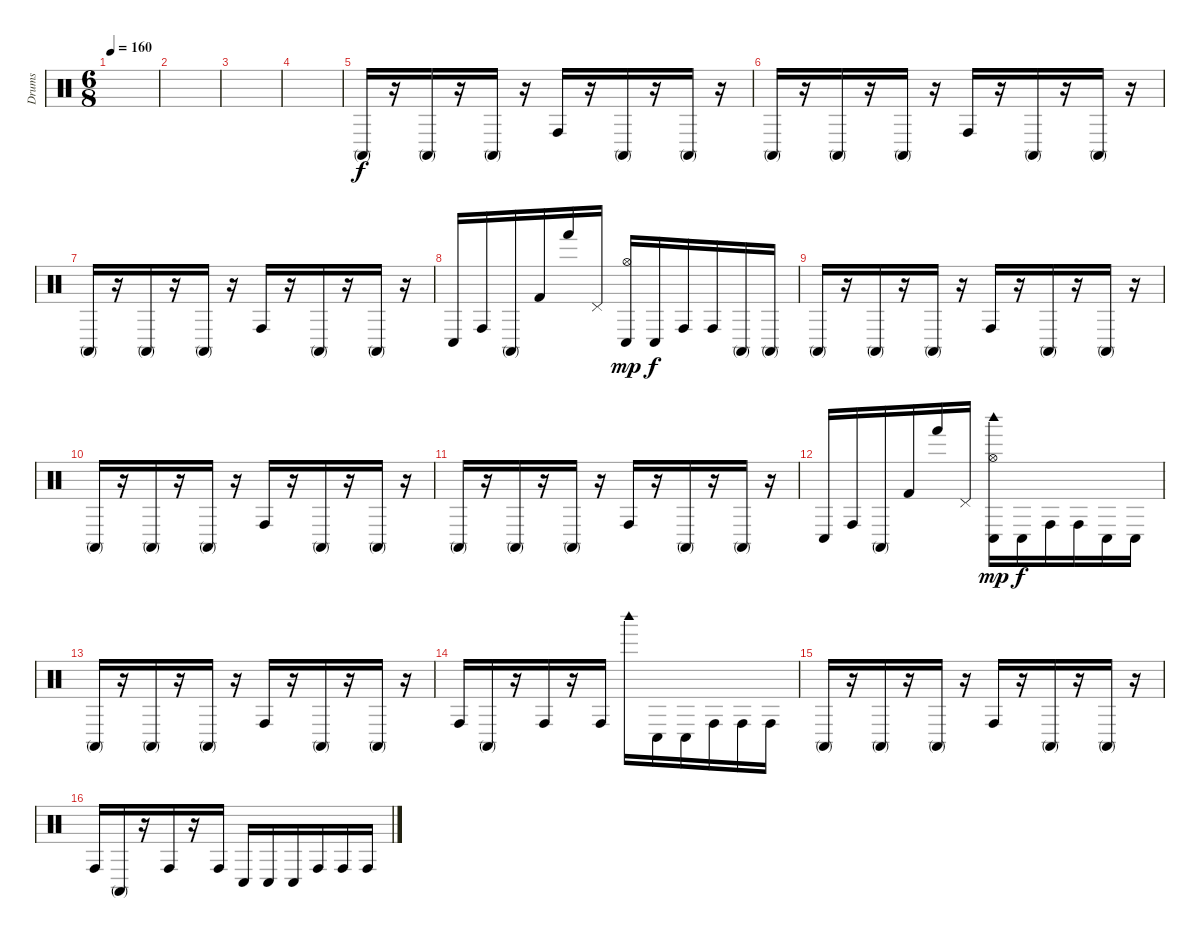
\track ("Drums" "Drums") {instrument percussion}
\staff {score}
\articulation defaults
\ts (6 8)
\tempo 160
\clef neutral
\ks c
|
|
|
|
"Conga high (mute)".16 r.16 "Conga high (mute)".16 r.16 "Conga high (mute)".16 r.16 "Conga high (hit)".16 r.16 "Conga high (mute)".16 r.16 "Conga high (mute)".16 r.16 |
"Conga high (mute)".16 r.16 "Conga high (mute)".16 r.16 "Conga high (mute)".16 r.16 "Conga high (hit)".16 r.16 "Conga high (mute)".16 r.16 "Conga high (mute)".16 r.16 |
"Conga high (mute)".16 r.16 "Conga high (mute)".16 r.16 "Conga high (mute)".16 r.16 "Conga high (hit)".16 r.16 "Conga high (mute)".16 r.16 "Conga high (mute)".16 r.16 |
"Conga low (hit)".16 "Conga high (hit)".16 "Conga high (mute)".16 "Kick (hit) 2".16 "Hand (hit)".16 "Pedal Hi-Hat (hit)".16 ("Hi-Hat (open)" "Conga low (hit)").16{dy mp} "Conga low (hit)".16{dy f} "Conga high (hit)".16 "Conga high (hit)".16 "Conga high (mute)".16 "Conga high (mute)".16 |
"Conga high (mute)".16 r.16 "Conga high (mute)".16 r.16 "Conga high (mute)".16 r.16 "Conga high (hit)".16 r.16 "Conga high (mute)".16 r.16 "Conga high (mute)".16 r.16 |
"Conga high (mute)".16 r.16 "Conga high (mute)".16 r.16 "Conga high (mute)".16 r.16 "Conga high (hit)".16 r.16 "Conga high (mute)".16 r.16 "Conga high (mute)".16 r.16 |
"Conga high (mute)".16 r.16 "Conga high (mute)".16 r.16 "Conga high (mute)".16 r.16 "Conga high (hit)".16 r.16 "Conga high (mute)".16 r.16 "Conga high (mute)".16 r.16 |
"Conga low (hit)".16 "Conga high (hit)".16 "Conga high (mute)".16 "Kick (hit) 2".16 "Hand (hit)".16 "Pedal Hi-Hat (hit)".16 ("Hi-Hat (open)" "Conga low (hit)" "Woodblock high (hit)").16{dy mp} "Conga low (hit)".16{dy f} "Conga high (hit)".16 "Conga high (hit)".16 "Conga low (hit)".16 "Conga low (hit)".16 |
"Conga high (mute)".16 r.16 "Conga high (mute)".16 r.16 "Conga high (mute)".16 r.16 "Conga high (hit)".16 r.16 "Conga high (mute)".16 r.16 "Conga high (mute)".16 r.16 |
"Conga high (hit)".16 "Conga high (mute)".16 r.16 "Conga high (hit)".16 r.16 "Conga high (hit)".16 "Woodblock high (hit)".16 "Conga low (hit)".16 "Conga low (hit)".16 "Conga high (hit)".16 "Conga high (hit)".16 "Conga high (hit)".16 |
"Conga high (mute)".16 r.16 "Conga high (mute)".16 r.16 "Conga high (mute)".16 r.16 "Conga high (hit)".16 r.16 "Conga high (mute)".16 r.16 "Conga high (mute)".16 r.16 |
"Conga high (hit)".16 "Conga high (mute)".16 r.16 "Conga high (hit)".16 r.16 "Conga high (hit)".16 "Conga low (hit)".16 "Conga low (hit)".16 "Conga low (hit)".16 "Conga high (hit)".16 "Conga high (hit)".16 "Conga high (hit)".16
